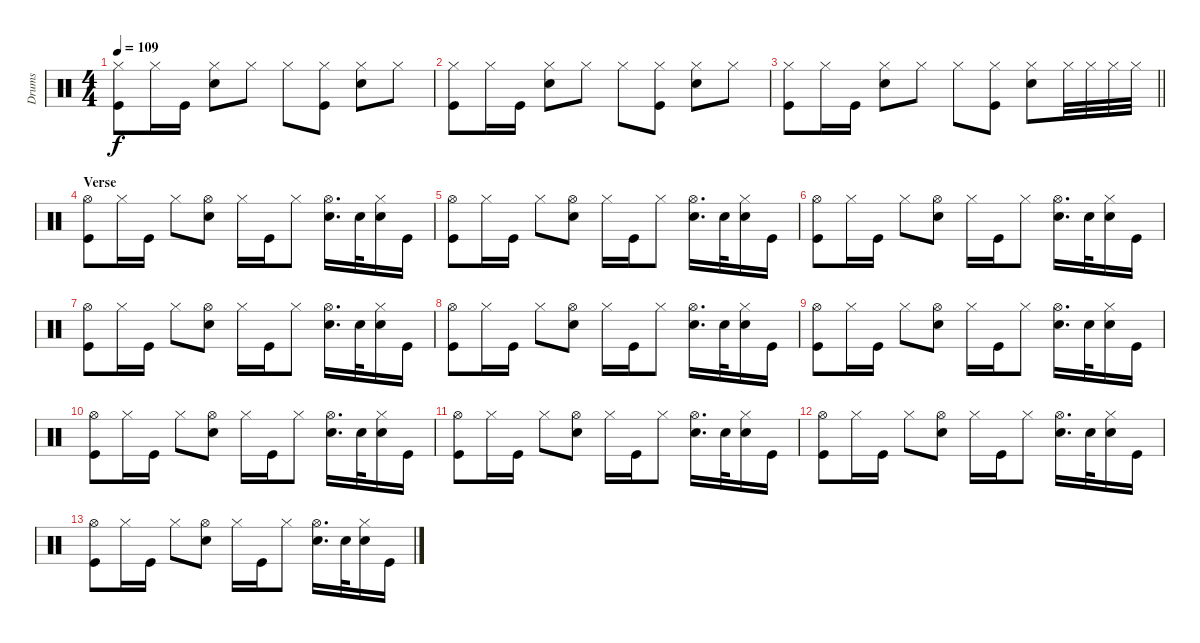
\track ("Drums" "Drums") {instrument percussion}
\staff {score}
\articulation defaults
\ts (4 4)
\tempo 109
\clef neutral
\ks c
("Hi-Hat (closed)" "Kick (hit)").8{dy f} "Hi-Hat (closed)".16 "Kick (hit)".16 ("Hi-Hat (closed)" "Snare (hit) 2").8 "Hi-Hat (closed)".8 "Hi-Hat (closed)".8 ("Hi-Hat (closed)" "Kick (hit)").8 ("Hi-Hat (closed)" "Snare (hit) 2").8 "Hi-Hat (closed)".8 |
("Hi-Hat (closed)" "Kick (hit)").8 "Hi-Hat (closed)".16 "Kick (hit)".16 ("Hi-Hat (closed)" "Snare (hit) 2").8 "Hi-Hat (closed)".8 "Hi-Hat (closed)".8 ("Hi-Hat (closed)" "Kick (hit)").8 ("Hi-Hat (closed)" "Snare (hit) 2").8 "Hi-Hat (closed)".8 |
\barLineRight lightlight
("Hi-Hat (closed)" "Kick (hit)").8 "Hi-Hat (closed)".16 "Kick (hit)".16 ("Hi-Hat (closed)" "Snare (hit) 2").8 "Hi-Hat (closed)".8 "Hi-Hat (closed)".8 ("Hi-Hat (closed)" "Kick (hit)").8 ("Hi-Hat (closed)" "Snare (hit) 2").8 "Hi-Hat (closed)".32 "Hi-Hat (closed)".32 "Hi-Hat (closed)".32 "Hi-Hat (closed)".32 |
\section ("" "Verse")
("Hi-Hat (open)" "Kick (hit)").8{volume 10 balance 8} "Hi-Hat (closed)".16 "Kick (hit)".16 "Hi-Hat (closed)".8 ("Hi-Hat (open)" "Electric Snare (hit)").8 "Hi-Hat (closed)".16 "Kick (hit)".16 "Hi-Hat (closed)".8 ("Hi-Hat (open)" "Electric Snare (hit)").16{d} "Electric Snare (hit)".32 ("Hi-Hat (closed)" "Electric Snare (hit)").16 "Kick (hit)".16 |
("Hi-Hat (open)" "Kick (hit)").8 "Hi-Hat (closed)".16 "Kick (hit)".16 "Hi-Hat (closed)".8 ("Hi-Hat (open)" "Electric Snare (hit)").8 "Hi-Hat (closed)".16 "Kick (hit)".16 "Hi-Hat (closed)".8 ("Hi-Hat (open)" "Electric Snare (hit)").16{d} "Electric Snare (hit)".32 ("Hi-Hat (closed)" "Electric Snare (hit)").16 "Kick (hit)".16 |
("Hi-Hat (open)" "Kick (hit)").8 "Hi-Hat (closed)".16 "Kick (hit)".16 "Hi-Hat (closed)".8 ("Hi-Hat (open)" "Electric Snare (hit)").8 "Hi-Hat (closed)".16 "Kick (hit)".16 "Hi-Hat (closed)".8 ("Hi-Hat (open)" "Electric Snare (hit)").16{d} "Electric Snare (hit)".32 ("Hi-Hat (closed)" "Electric Snare (hit)").16 "Kick (hit)".16 |
("Hi-Hat (open)" "Kick (hit)").8 "Hi-Hat (closed)".16 "Kick (hit)".16 "Hi-Hat (closed)".8 ("Hi-Hat (open)" "Electric Snare (hit)").8 "Hi-Hat (closed)".16 "Kick (hit)".16 "Hi-Hat (closed)".8 ("Hi-Hat (open)" "Electric Snare (hit)").16{d} "Electric Snare (hit)".32 ("Hi-Hat (closed)" "Electric Snare (hit)").16 "Kick (hit)".16 |
("Hi-Hat (open)" "Kick (hit)").8 "Hi-Hat (closed)".16 "Kick (hit)".16 "Hi-Hat (closed)".8 ("Hi-Hat (open)" "Electric Snare (hit)").8 "Hi-Hat (closed)".16 "Kick (hit)".16 "Hi-Hat (closed)".8 ("Hi-Hat (open)" "Electric Snare (hit)").16{d} "Electric Snare (hit)".32 ("Hi-Hat (closed)" "Electric Snare (hit)").16 "Kick (hit)".16 |
("Hi-Hat (open)" "Kick (hit)").8 "Hi-Hat (closed)".16 "Kick (hit)".16 "Hi-Hat (closed)".8 ("Hi-Hat (open)" "Electric Snare (hit)").8 "Hi-Hat (closed)".16 "Kick (hit)".16 "Hi-Hat (closed)".8 ("Hi-Hat (open)" "Electric Snare (hit)").16{d} "Electric Snare (hit)".32 ("Hi-Hat (closed)" "Electric Snare (hit)").16 "Kick (hit)".16 |
("Hi-Hat (open)" "Kick (hit)").8 "Hi-Hat (closed)".16 "Kick (hit)".16 "Hi-Hat (closed)".8 ("Hi-Hat (open)" "Electric Snare (hit)").8 "Hi-Hat (closed)".16 "Kick (hit)".16 "Hi-Hat (closed)".8 ("Hi-Hat (open)" "Electric Snare (hit)").16{d} "Electric Snare (hit)".32 ("Hi-Hat (closed)" "Electric Snare (hit)").16 "Kick (hit)".16 |
("Hi-Hat (open)" "Kick (hit)").8 "Hi-Hat (closed)".16 "Kick (hit)".16 "Hi-Hat (closed)".8 ("Hi-Hat (open)" "Electric Snare (hit)").8 "Hi-Hat (closed)".16 "Kick (hit)".16 "Hi-Hat (closed)".8 ("Hi-Hat (open)" "Electric Snare (hit)").16{d} "Electric Snare (hit)".32 ("Hi-Hat (closed)" "Electric Snare (hit)").16 "Kick (hit)".16 |
("Hi-Hat (open)" "Kick (hit)").8 "Hi-Hat (closed)".16 "Kick (hit)".16 "Hi-Hat (closed)".8 ("Hi-Hat (open)" "Electric Snare (hit)").8 "Hi-Hat (closed)".16 "Kick (hit)".16 "Hi-Hat (closed)".8 ("Hi-Hat (open)" "Electric Snare (hit)").16{d} "Electric Snare (hit)".32 ("Hi-Hat (closed)" "Electric Snare (hit)").16 "Kick (hit)".16 |
("Hi-Hat (open)" "Kick (hit)").8 "Hi-Hat (closed)".16 "Kick (hit)".16 "Hi-Hat (closed)".8 ("Hi-Hat (open)" "Electric Snare (hit)").8 "Hi-Hat (closed)".16 "Kick (hit)".16 "Hi-Hat (closed)".8 ("Hi-Hat (open)" "Electric Snare (hit)").16{d} "Electric Snare (hit)".32 ("Hi-Hat (closed)" "Electric Snare (hit)").16 "Kick (hit)".16
